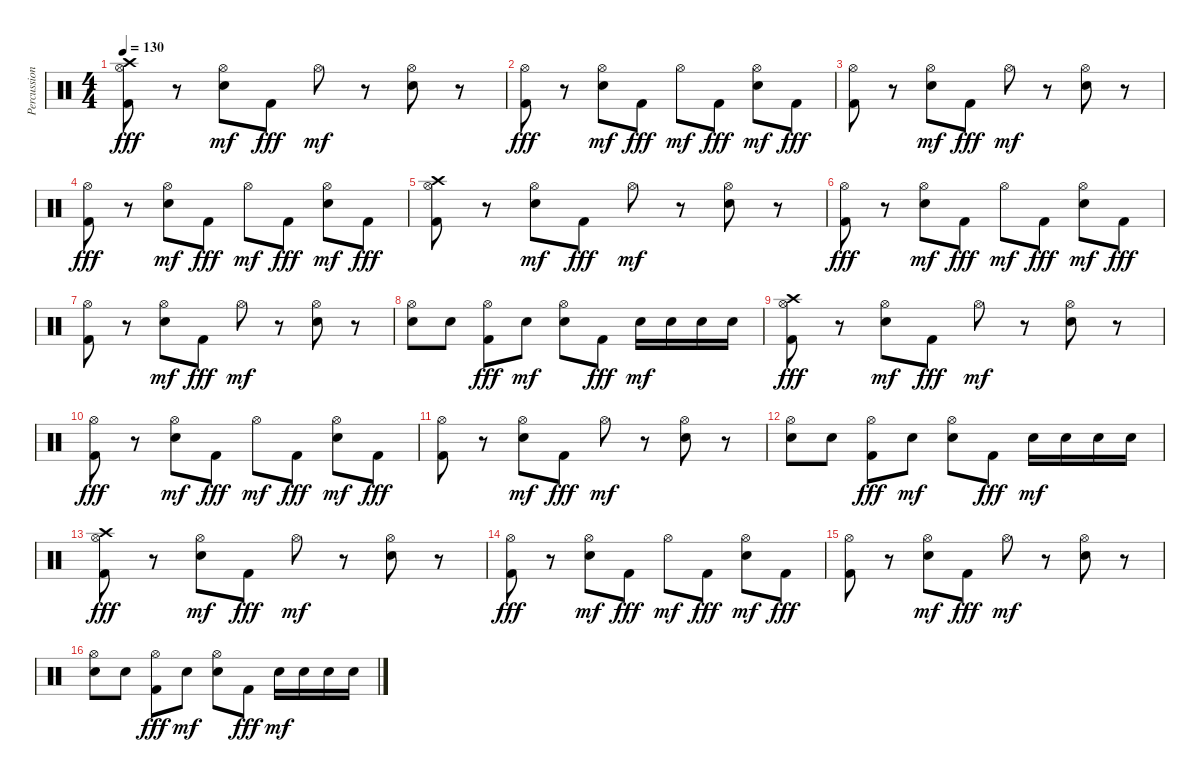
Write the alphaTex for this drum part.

\track ("Percussion" "Percussion") {instrument percussion}
\staff {score}
\articulation defaults
\ts (4 4)
\tempo 130
\clef neutral
\ks c
("Hi-Hat (open)" "Kick (hit) 2" "Crash high (hit)").8{dy fff} r.8 ("Hi-Hat (open)" "Electric Snare (hit)").8{dy mf} "Kick (hit) 2".8{dy fff} "Hi-Hat (open)".8{dy mf} r.8 ("Hi-Hat (open)" "Electric Snare (hit)").8 r.8 |
("Hi-Hat (open)" "Kick (hit) 2").8{dy fff} r.8 ("Hi-Hat (open)" "Electric Snare (hit)").8{dy mf} "Kick (hit) 2".8{dy fff} "Hi-Hat (open)".8{dy mf} "Kick (hit) 2".8{dy fff} ("Hi-Hat (open)" "Electric Snare (hit)").8{dy mf} "Kick (hit) 2".8{dy fff} |
("Hi-Hat (open)" "Kick (hit) 2").8 r.8 ("Hi-Hat (open)" "Electric Snare (hit)").8{dy mf} "Kick (hit) 2".8{dy fff} "Hi-Hat (open)".8{dy mf} r.8 ("Hi-Hat (open)" "Electric Snare (hit)").8 r.8 |
("Hi-Hat (open)" "Kick (hit) 2").8{dy fff} r.8 ("Hi-Hat (open)" "Electric Snare (hit)").8{dy mf} "Kick (hit) 2".8{dy fff} "Hi-Hat (open)".8{dy mf} "Kick (hit) 2".8{dy fff} ("Hi-Hat (open)" "Electric Snare (hit)").8{dy mf} "Kick (hit) 2".8{dy fff} |
("Hi-Hat (open)" "Kick (hit) 2" "Crash high (hit)").8 r.8 ("Hi-Hat (open)" "Electric Snare (hit)").8{dy mf} "Kick (hit) 2".8{dy fff} "Hi-Hat (open)".8{dy mf} r.8 ("Hi-Hat (open)" "Electric Snare (hit)").8 r.8 |
("Hi-Hat (open)" "Kick (hit) 2").8{dy fff} r.8 ("Hi-Hat (open)" "Electric Snare (hit)").8{dy mf} "Kick (hit) 2".8{dy fff} "Hi-Hat (open)".8{dy mf} "Kick (hit) 2".8{dy fff} ("Hi-Hat (open)" "Electric Snare (hit)").8{dy mf} "Kick (hit) 2".8{dy fff} |
("Hi-Hat (open)" "Kick (hit) 2").8 r.8 ("Hi-Hat (open)" "Electric Snare (hit)").8{dy mf} "Kick (hit) 2".8{dy fff} "Hi-Hat (open)".8{dy mf} r.8 ("Hi-Hat (open)" "Electric Snare (hit)").8 r.8 |
("Hi-Hat (open)" "Electric Snare (hit)").8 "Electric Snare (hit)".8 ("Hi-Hat (open)" "Kick (hit) 2").8{dy fff} "Electric Snare (hit)".8{dy mf} ("Hi-Hat (open)" "Electric Snare (hit)").8 "Kick (hit) 2".8{dy fff} "Electric Snare (hit)".16{dy mf} "Electric Snare (hit)".16 "Electric Snare (hit)".16 "Electric Snare (hit)".16 |
("Hi-Hat (open)" "Kick (hit) 2" "Crash high (hit)").8{dy fff} r.8 ("Hi-Hat (open)" "Electric Snare (hit)").8{dy mf} "Kick (hit) 2".8{dy fff} "Hi-Hat (open)".8{dy mf} r.8 ("Hi-Hat (open)" "Electric Snare (hit)").8 r.8 |
("Hi-Hat (open)" "Kick (hit) 2").8{dy fff} r.8 ("Hi-Hat (open)" "Electric Snare (hit)").8{dy mf} "Kick (hit) 2".8{dy fff} "Hi-Hat (open)".8{dy mf} "Kick (hit) 2".8{dy fff} ("Hi-Hat (open)" "Electric Snare (hit)").8{dy mf} "Kick (hit) 2".8{dy fff} |
("Hi-Hat (open)" "Kick (hit) 2").8 r.8 ("Hi-Hat (open)" "Electric Snare (hit)").8{dy mf} "Kick (hit) 2".8{dy fff} "Hi-Hat (open)".8{dy mf} r.8 ("Hi-Hat (open)" "Electric Snare (hit)").8 r.8 |
("Hi-Hat (open)" "Electric Snare (hit)").8 "Electric Snare (hit)".8 ("Hi-Hat (open)" "Kick (hit) 2").8{dy fff} "Electric Snare (hit)".8{dy mf} ("Hi-Hat (open)" "Electric Snare (hit)").8 "Kick (hit) 2".8{dy fff} "Electric Snare (hit)".16{dy mf} "Electric Snare (hit)".16 "Electric Snare (hit)".16 "Electric Snare (hit)".16 |
("Hi-Hat (open)" "Kick (hit) 2" "Crash high (hit)").8{dy fff} r.8 ("Hi-Hat (open)" "Electric Snare (hit)").8{dy mf} "Kick (hit) 2".8{dy fff} "Hi-Hat (open)".8{dy mf} r.8 ("Hi-Hat (open)" "Electric Snare (hit)").8 r.8 |
("Hi-Hat (open)" "Kick (hit) 2").8{dy fff} r.8 ("Hi-Hat (open)" "Electric Snare (hit)").8{dy mf} "Kick (hit) 2".8{dy fff} "Hi-Hat (open)".8{dy mf} "Kick (hit) 2".8{dy fff} ("Hi-Hat (open)" "Electric Snare (hit)").8{dy mf} "Kick (hit) 2".8{dy fff} |
("Hi-Hat (open)" "Kick (hit) 2").8 r.8 ("Hi-Hat (open)" "Electric Snare (hit)").8{dy mf} "Kick (hit) 2".8{dy fff} "Hi-Hat (open)".8{dy mf} r.8 ("Hi-Hat (open)" "Electric Snare (hit)").8 r.8 |
("Hi-Hat (open)" "Electric Snare (hit)").8 "Electric Snare (hit)".8 ("Hi-Hat (open)" "Kick (hit) 2").8{dy fff} "Electric Snare (hit)".8{dy mf} ("Hi-Hat (open)" "Electric Snare (hit)").8 "Kick (hit) 2".8{dy fff} "Electric Snare (hit)".16{dy mf} "Electric Snare (hit)".16 "Electric Snare (hit)".16 "Electric Snare (hit)".16
